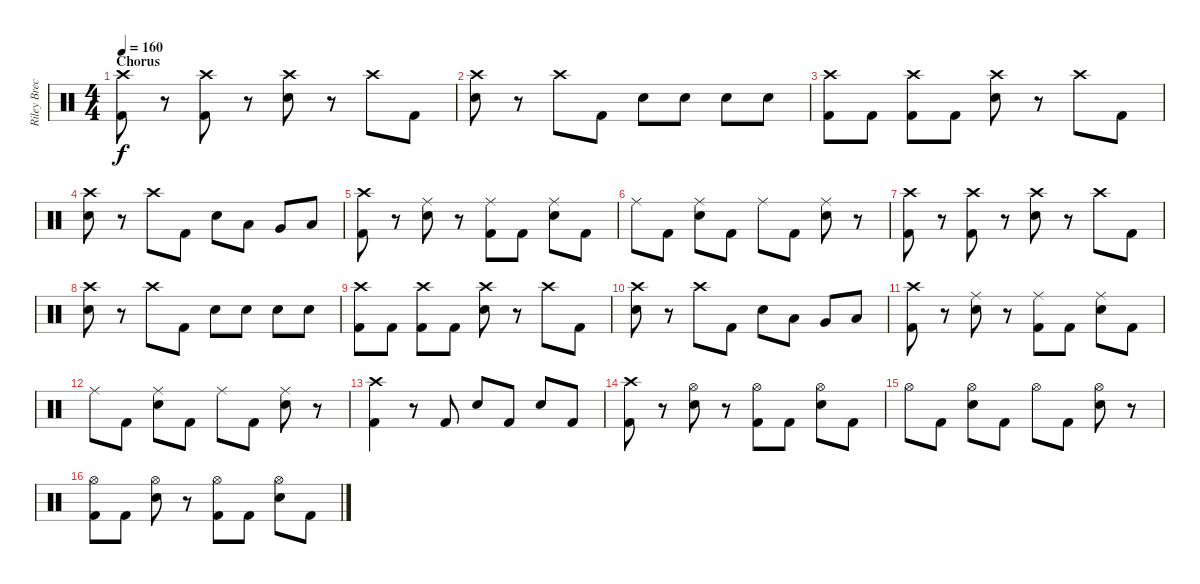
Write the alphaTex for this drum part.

\track ("Riley Breckenridge" "Riley Brec") {instrument percussion}
\staff {score}
\articulation defaults
\ts (4 4)
\section ("" "Chorus")
\tempo 160
\clef neutral
\ks c
("Kick (hit) 2" "Crash high (hit)").8{dy f} r.8 ("Kick (hit) 2" "Crash high (hit)").8 r.8 ("Electric Snare (hit)" "Crash high (hit)").8 r.8 "Crash high (hit)".8 "Kick (hit) 2".8 |
("Electric Snare (hit)" "Crash high (hit)").8 r.8 "Crash high (hit)".8 "Kick (hit) 2".8 "Electric Snare (hit)".8 "Electric Snare (hit)".8 "Electric Snare (hit)".8 "Electric Snare (hit)".8 |
("Kick (hit) 2" "Crash high (hit)").8 "Kick (hit) 2".8 ("Kick (hit) 2" "Crash high (hit)").8 "Kick (hit) 2".8 ("Electric Snare (hit)" "Crash high (hit)").8 r.8 "Crash high (hit)".8 "Kick (hit) 2".8 |
("Electric Snare (hit)" "Crash high (hit)").8 r.8 "Crash high (hit)".8 "Kick (hit) 2".8 "Electric Snare (hit)".8 "Low Tom (hit)".8 "Very Low Tom (hit)".8 "Low Floor Tom (hit)".8 |
("Kick (hit) 2" "Crash high (hit)").8 r.8 ("Electric Snare (hit)" "Ride (middle)").8 r.8 ("Kick (hit) 2" "Ride (middle)").8 "Kick (hit) 2".8 ("Electric Snare (hit)" "Ride (middle)").8 "Kick (hit) 2".8 |
"Ride (middle)".8 "Kick (hit) 2".8 ("Electric Snare (hit)" "Ride (middle)").8 "Kick (hit) 2".8 "Ride (middle)".8 "Kick (hit) 2".8 ("Electric Snare (hit)" "Ride (middle)").8 r.8 |
("Kick (hit) 2" "Crash high (hit)").8 r.8 ("Kick (hit) 2" "Crash high (hit)").8 r.8 ("Electric Snare (hit)" "Crash high (hit)").8 r.8 "Crash high (hit)".8 "Kick (hit) 2".8 |
("Electric Snare (hit)" "Crash high (hit)").8 r.8 "Crash high (hit)".8 "Kick (hit) 2".8 "Electric Snare (hit)".8 "Electric Snare (hit)".8 "Electric Snare (hit)".8 "Electric Snare (hit)".8 |
("Kick (hit) 2" "Crash high (hit)").8 "Kick (hit) 2".8 ("Kick (hit) 2" "Crash high (hit)").8 "Kick (hit) 2".8 ("Electric Snare (hit)" "Crash high (hit)").8 r.8 "Crash high (hit)".8 "Kick (hit) 2".8 |
("Electric Snare (hit)" "Crash high (hit)").8 r.8 "Crash high (hit)".8 "Kick (hit) 2".8 "Electric Snare (hit)".8 "Low Tom (hit)".8 "Very Low Tom (hit)".8 "Low Floor Tom (hit)".8 |
("Kick (hit) 2" "Crash high (hit)").8 r.8 ("Electric Snare (hit)" "Ride (middle)").8 r.8 ("Kick (hit) 2" "Ride (middle)").8 "Kick (hit) 2".8 ("Electric Snare (hit)" "Ride (middle)").8 "Kick (hit) 2".8 |
"Ride (middle)".8 "Kick (hit) 2".8 ("Electric Snare (hit)" "Ride (middle)").8 "Kick (hit) 2".8 "Ride (middle)".8 "Kick (hit) 2".8 ("Electric Snare (hit)" "Ride (middle)").8 r.8 |
("Kick (hit) 2" "Crash high (hit)").4 r.8 "Kick (hit) 2".8 "Electric Snare (hit)".8 "Kick (hit) 2".8 "Electric Snare (hit)".8 "Kick (hit) 2".8 |
("Kick (hit) 2" "Crash high (hit)").8 r.8 ("Electric Snare (hit)" "Hi-Hat (open)").8 r.8 ("Kick (hit) 2" "Hi-Hat (open)").8 "Kick (hit) 2".8 ("Electric Snare (hit)" "Hi-Hat (open)").8 "Kick (hit) 2".8 |
"Hi-Hat (open)".8 "Kick (hit) 2".8 ("Electric Snare (hit)" "Hi-Hat (open)").8 "Kick (hit) 2".8 "Hi-Hat (open)".8 "Kick (hit) 2".8 ("Electric Snare (hit)" "Hi-Hat (open)").8 r.8 |
("Kick (hit) 2" "Hi-Hat (open)").8 "Kick (hit) 2".8 ("Electric Snare (hit)" "Hi-Hat (open)").8 r.8 ("Kick (hit) 2" "Hi-Hat (open)").8 "Kick (hit) 2".8 ("Electric Snare (hit)" "Hi-Hat (open)").8 "Kick (hit) 2".8
